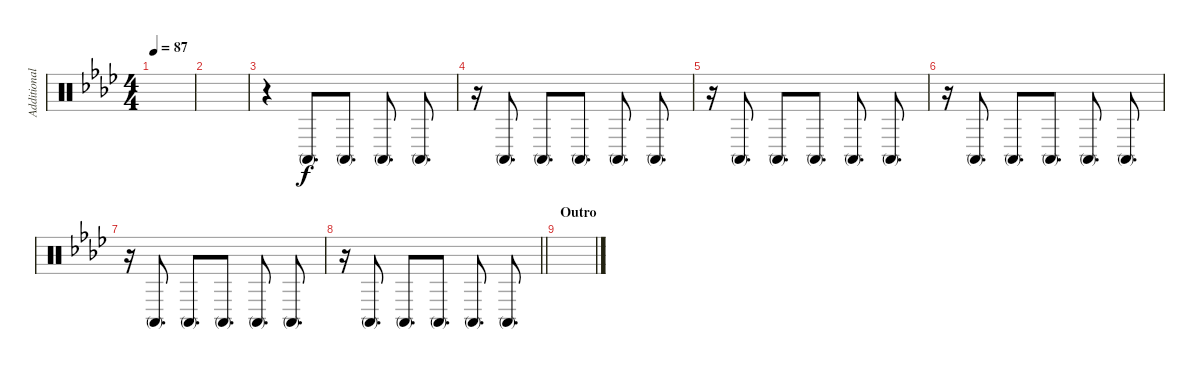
\track ("Additional Percussion" "Additional") {instrument percussion}
\staff {score}
\articulation defaults
\ts (4 4)
\tempo 87
\clef neutral
\ks fminor
|
|
r.4{volume 7} "Conga high (mute)".8{d} "Conga high (mute)".8{d} "Conga high (mute)".8{d} "Conga high (mute)".8{d} |
r.16 "Conga high (mute)".8{d} "Conga high (mute)".8{d} "Conga high (mute)".8{d} "Conga high (mute)".8{d} "Conga high (mute)".8{d} |
r.16 "Conga high (mute)".8{d} "Conga high (mute)".8{d} "Conga high (mute)".8{d} "Conga high (mute)".8{d} "Conga high (mute)".8{d} |
r.16 "Conga high (mute)".8{d} "Conga high (mute)".8{d} "Conga high (mute)".8{d} "Conga high (mute)".8{d} "Conga high (mute)".8{d} |
r.16 "Conga high (mute)".8{d} "Conga high (mute)".8{d} "Conga high (mute)".8{d} "Conga high (mute)".8{d} "Conga high (mute)".8{d} |
\barLineRight lightlight
r.16 "Conga high (mute)".8{d} "Conga high (mute)".8{d} "Conga high (mute)".8{d} "Conga high (mute)".8{d} "Conga high (mute)".8{d} |
\section ("" "Outro")
